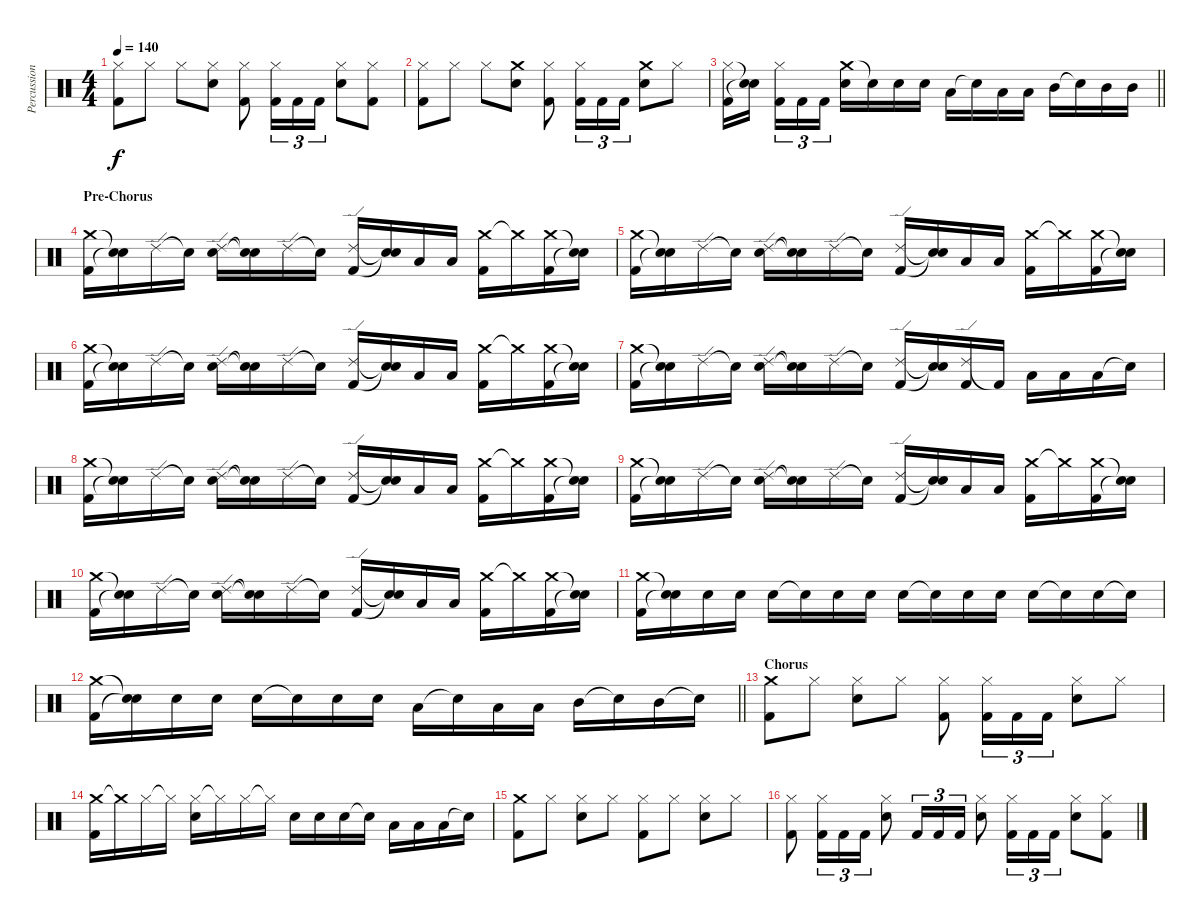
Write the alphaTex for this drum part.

\track ("Percussion" "Percussion") {instrument percussion}
\staff {score}
\articulation defaults
\ts (4 4)
\tempo 140
\clef neutral
\ks c
("Hi-Hat (closed)" "Kick (hit) 2").8{dy f} "Hi-Hat (closed)".8 "Hi-Hat (closed)".8 ("Hi-Hat (closed)" "Snare (hit) 2").8 ("Hi-Hat (closed)" "Kick (hit) 2").8 ("Hi-Hat (closed)" "Kick (hit) 2").16{tu (3 2)} "Kick (hit) 2".16{tu (3 2)} "Kick (hit) 2".16{tu (3 2)} ("Hi-Hat (closed)" "Snare (hit) 2").8 ("Hi-Hat (closed)" "Kick (hit) 2").8 |
("Hi-Hat (closed)" "Kick (hit) 2").8 "Hi-Hat (closed)".8 "Hi-Hat (closed)".8 ("Crash medium (hit)" "Snare (hit) 2").8 ("Hi-Hat (closed)" "Kick (hit) 2").8 ("Hi-Hat (closed)" "Kick (hit) 2").16{tu (3 2)} "Kick (hit) 2".16{tu (3 2)} "Kick (hit) 2".16{tu (3 2)} ("Crash medium (hit)" "Snare (hit) 2").8 "Hi-Hat (closed)".8 |
\barLineRight lightlight
("Hi-Hat (closed)" "Kick (hit) 2").16 ("Snare (hit)"{t} "Snare (hit)"{t}).16{beam splitsecondary} ("Hi-Hat (closed)" "Kick (hit) 2").16{tu (3 2)} "Kick (hit) 2".16{tu (3 2)} "Kick (hit) 2".16{tu (3 2)} ("Crash medium (hit)" "Snare (hit) 2").16 "Snare (hit)"{t}.16 "Snare (hit) 2".16 "Snare (hit) 2".16 "Low Tom (hit)".16 "Snare (hit)"{t}.16 "Low Tom (hit)".16 "Low Tom (hit)".16 "Mid Tom (hit)".16 "Snare (hit)"{t}.16 "Mid Tom (hit)".16 "Mid Tom (hit)".16 |
\section ("" "Pre-Chorus")
("Crash medium (hit)" "Kick (hit) 2").16 ("Snare (hit)"{t} "Snare (hit)"{t}).16 "Ride (edge) 2".16 "Snare (hit)"{t}.16 ("Ride (edge) 2" "Snare (hit) 2").16 ("Snare (hit)"{t} "Snare (hit)"{t}).16 "Ride (edge) 2".16 "Snare (hit)"{t}.16 ("Ride (edge) 2" "Kick (hit) 2").16 ("Snare (hit)"{t} "Snare (hit)"{t}).16 "Low Tom (hit)".16 "Low Tom (hit)".16 ("Crash medium (hit)" "Kick (hit) 2").16 "Crash medium (hit)"{t}.16 ("Crash medium (hit)" "Kick (hit) 2").16 ("Snare (hit)"{t} "Snare (hit)"{t}).16 |
("Crash medium (hit)" "Kick (hit) 2").16 ("Snare (hit)"{t} "Snare (hit)"{t}).16 "Ride (edge) 2".16 "Snare (hit)"{t}.16 ("Ride (edge) 2" "Snare (hit) 2").16 ("Snare (hit)"{t} "Snare (hit)"{t}).16 "Ride (edge) 2".16 "Snare (hit)"{t}.16 ("Ride (edge) 2" "Kick (hit) 2").16 ("Snare (hit)"{t} "Snare (hit)"{t}).16 "Low Tom (hit)".16 "Low Tom (hit)".16 ("Crash medium (hit)" "Kick (hit) 2").16 "Crash medium (hit)"{t}.16 ("Crash medium (hit)" "Kick (hit) 2").16 ("Snare (hit)"{t} "Snare (hit)"{t}).16 |
("Crash medium (hit)" "Kick (hit) 2").16 ("Snare (hit)"{t} "Snare (hit)"{t}).16 "Ride (edge) 2".16 "Snare (hit)"{t}.16 ("Ride (edge) 2" "Snare (hit) 2").16 ("Snare (hit)"{t} "Snare (hit)"{t}).16 "Ride (edge) 2".16 "Snare (hit)"{t}.16 ("Ride (edge) 2" "Kick (hit) 2").16 ("Snare (hit)"{t} "Snare (hit)"{t}).16 "Low Tom (hit)".16 "Low Tom (hit)".16 ("Crash medium (hit)" "Kick (hit) 2").16 "Crash medium (hit)"{t}.16 ("Crash medium (hit)" "Kick (hit) 2").16 ("Snare (hit)"{t} "Snare (hit)"{t}).16 |
("Crash medium (hit)" "Kick (hit) 2").16 ("Snare (hit)"{t} "Snare (hit)"{t}).16 "Ride (edge) 2".16 "Snare (hit)"{t}.16 ("Ride (edge) 2" "Snare (hit) 2").16 ("Snare (hit)"{t} "Snare (hit)"{t}).16 "Ride (edge) 2".16 "Snare (hit)"{t}.16 ("Ride (edge) 2" "Kick (hit) 2").16 ("Snare (hit)"{t} "Snare (hit)"{t}).16 ("Ride (edge) 2" "Kick (hit) 2").16 "Kick (hit) 2"{t}.16 "Low Tom (hit)".16 "Low Tom (hit)".16 "Low Tom (hit)".16 "Snare (hit)"{t}.16 |
("Crash medium (hit)" "Kick (hit) 2").16 ("Snare (hit)"{t} "Snare (hit)"{t}).16 "Ride (edge) 2".16 "Snare (hit)"{t}.16 ("Ride (edge) 2" "Snare (hit) 2").16 ("Snare (hit)"{t} "Snare (hit)"{t}).16 "Ride (edge) 2".16 "Snare (hit)"{t}.16 ("Ride (edge) 2" "Kick (hit) 2").16 ("Snare (hit)"{t} "Snare (hit)"{t}).16 "Low Tom (hit)".16 "Low Tom (hit)".16 ("Crash medium (hit)" "Kick (hit) 2").16 "Crash medium (hit)"{t}.16 ("Crash medium (hit)" "Kick (hit) 2").16 ("Snare (hit)"{t} "Snare (hit)"{t}).16 |
("Crash medium (hit)" "Kick (hit) 2").16 ("Snare (hit)"{t} "Snare (hit)"{t}).16 "Ride (edge) 2".16 "Snare (hit)"{t}.16 ("Ride (edge) 2" "Snare (hit) 2").16 ("Snare (hit)"{t} "Snare (hit)"{t}).16 "Ride (edge) 2".16 "Snare (hit)"{t}.16 ("Ride (edge) 2" "Kick (hit) 2").16 ("Snare (hit)"{t} "Snare (hit)"{t}).16 "Low Tom (hit)".16 "Low Tom (hit)".16 ("Crash medium (hit)" "Kick (hit) 2").16 "Crash medium (hit)"{t}.16 ("Crash medium (hit)" "Kick (hit) 2").16 ("Snare (hit)"{t} "Snare (hit)"{t}).16 |
("Crash medium (hit)" "Kick (hit) 2").16 ("Snare (hit)"{t} "Snare (hit)"{t}).16 "Ride (edge) 2".16 "Snare (hit)"{t}.16 ("Ride (edge) 2" "Snare (hit) 2").16 ("Snare (hit)"{t} "Snare (hit)"{t}).16 "Ride (edge) 2".16 "Snare (hit)"{t}.16 ("Ride (edge) 2" "Kick (hit) 2").16 ("Snare (hit)"{t} "Snare (hit)"{t}).16 "Low Tom (hit)".16 "Low Tom (hit)".16 ("Crash medium (hit)" "Kick (hit) 2").16 "Crash medium (hit)"{t}.16 ("Crash medium (hit)" "Kick (hit) 2").16 ("Snare (hit)"{t} "Snare (hit)"{t}).16 |
("Crash medium (hit)" "Kick (hit) 2").16 ("Snare (hit)"{t} "Snare (hit)"{t}).16 "Snare (hit) 2".16 "Snare (hit) 2".16 "Snare (hit) 2".16 "Snare (hit) 2"{t}.16 "Snare (hit) 2".16 "Snare (hit) 2".16 "Snare (hit) 2".16 "Snare (hit) 2"{t}.16 "Snare (hit) 2".16 "Snare (hit) 2".16 "Snare (hit) 2".16 "Snare (hit) 2"{t}.16 "Snare (hit) 2".16 "Snare (hit)"{t}.16 |
\barLineRight lightlight
("Crash medium (hit)" "Kick (hit) 2").16 ("Snare (hit)"{t} "Snare (hit)"{t}).16 "Snare (hit) 2".16 "Snare (hit) 2".16 "Snare (hit) 2".16 "Snare (hit) 2"{t}.16 "Snare (hit) 2".16 "Snare (hit) 2".16 "Low Tom (hit)".16 "Snare (hit)"{t}.16 "Low Tom (hit)".16 "Low Tom (hit)".16 "Mid Tom (hit)".16 "Snare (hit)"{t}.16 "Mid Tom (hit)".16 "Snare (hit)"{t}.16 |
\section ("" "Chorus")
("Crash medium (hit)" "Kick (hit) 2").8 "Hi-Hat (closed)".8 ("Hi-Hat (closed)" "Snare (hit) 2").8 "Hi-Hat (closed)".8 ("Hi-Hat (closed)" "Kick (hit) 2").8 ("Hi-Hat (closed)" "Kick (hit) 2").16{tu (3 2)} "Kick (hit) 2".16{tu (3 2)} "Kick (hit) 2".16{tu (3 2)} ("Hi-Hat (closed)" "Snare (hit) 2").8 "Hi-Hat (closed)".8 |
("Crash medium (hit)" "Kick (hit) 2").16 "Crash medium (hit)"{t}.16 "Hi-Hat (closed)".16 "Hi-Hat (closed)"{t}.16 ("Hi-Hat (closed)" "Snare (hit) 2").16 "Hi-Hat (closed)"{t}.16 "Hi-Hat (closed)".16 "Hi-Hat (closed)"{t}.16 "Snare (hit) 2".16 "Snare (hit) 2".16 "Snare (hit) 2".16 "Snare (hit) 2"{t}.16 "Low Tom (hit)".16 "Low Tom (hit)".16 "Low Tom (hit)".16 "Snare (hit)"{t}.16 |
("Crash medium (hit)" "Kick (hit) 2").8 "Hi-Hat (closed)".8 ("Hi-Hat (closed)" "Snare (hit) 2").8 "Hi-Hat (closed)".8 ("Hi-Hat (closed)" "Kick (hit) 2").8 "Hi-Hat (closed)".8 ("Hi-Hat (closed)" "Snare (hit) 2").8 "Hi-Hat (closed)".8 |
("Hi-Hat (closed)" "Kick (hit) 2").8 ("Hi-Hat (closed)" "Kick (hit) 2").16{tu (3 2)} "Kick (hit) 2".16{tu (3 2)} "Kick (hit) 2".16{tu (3 2)} ("Hi-Hat (closed)" "Snare (hit) 2").8 "Kick (hit) 2".16{tu (3 2)} "Kick (hit) 2".16{tu (3 2)} "Kick (hit) 2".16{tu (3 2)} ("Hi-Hat (closed)" "Snare (hit) 2").8 ("Hi-Hat (closed)" "Kick (hit) 2").16{tu (3 2)} "Kick (hit) 2".16{tu (3 2)} "Kick (hit) 2".16{tu (3 2)} ("Hi-Hat (closed)" "Snare (hit) 2").8 ("Hi-Hat (closed)" "Kick (hit) 2").8
